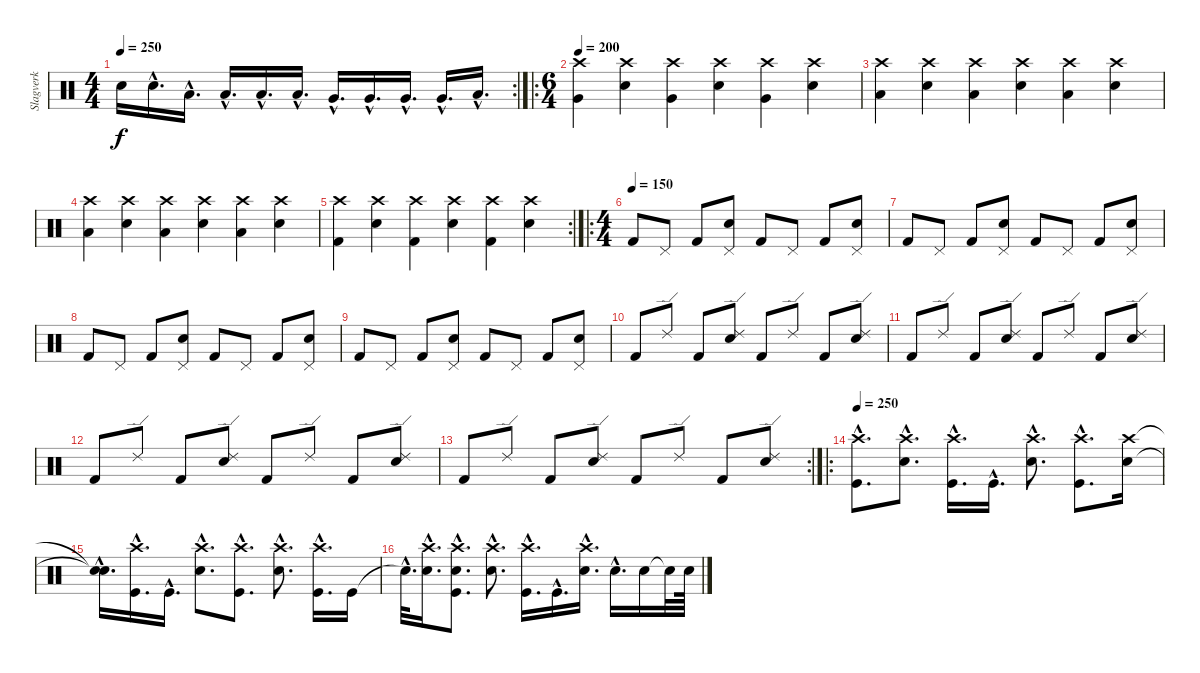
\track ("Slagverk" "Slagverk") {instrument percussion}
\staff {score}
\articulation defaults
\rc 2
\ts (4 4)
\tempo 250
\clef neutral
\ks c "Snare (hit)"{t}.16{dy f} "Electric Snare (hit)"{hac}.16{d} "Low Tom (hit)"{hac}.16{d} "Low Tom (hit)"{hac}.16{d} "Low Tom (hit)"{hac}.16{d} "Low Tom (hit)"{hac}.16{d} "Very Low Tom (hit)"{hac}.16{d} "Very Low Tom (hit)"{hac}.16{d} "Very Low Tom (hit)"{hac}.16{d} "Very Low Tom (hit)"{hac}.16{d} "Low Floor Tom (hit)"{hac}.16{d}
|
\ro
\ts (6 4)
\tempo 200
("Crash high (hit)" "Very Low Tom (hit)").4 ("Crash high (hit)" "Electric Snare (hit)").4 ("Crash high (hit)" "Very Low Tom (hit)").4 ("Crash high (hit)" "Electric Snare (hit)").4 ("Crash high (hit)" "Very Low Tom (hit)").4 ("Crash high (hit)" "Electric Snare (hit)").4 |
("Crash high (hit)" "Low Tom (hit)").4 ("Crash high (hit)" "Electric Snare (hit)").4 ("Crash high (hit)" "Low Tom (hit)").4 ("Crash high (hit)" "Electric Snare (hit)").4 ("Crash high (hit)" "Low Tom (hit)").4 ("Crash high (hit)" "Electric Snare (hit)").4 |
("Crash high (hit)" "Low Floor Tom (hit)").4 ("Crash high (hit)" "Electric Snare (hit)").4 ("Crash high (hit)" "Low Floor Tom (hit)").4 ("Crash high (hit)" "Electric Snare (hit)").4 ("Crash high (hit)" "Low Floor Tom (hit)").4 ("Crash high (hit)" "Electric Snare (hit)").4 |
\rc 2
("Crash high (hit)" "Kick (hit) 2").4 ("Crash high (hit)" "Electric Snare (hit)").4 ("Crash high (hit)" "Kick (hit) 2").4 ("Crash high (hit)" "Electric Snare (hit)").4 ("Crash high (hit)" "Kick (hit) 2").4 ("Crash high (hit)" "Electric Snare (hit)").4 |
\ro
\ts (4 4)
\tempo (150)
"Kick (hit) 2".8 "Pedal Hi-Hat (hit)".8 "Kick (hit) 2".8 ("Pedal Hi-Hat (hit)" "Electric Snare (hit)").8 "Kick (hit) 2".8 "Pedal Hi-Hat (hit)".8 "Kick (hit) 2".8 ("Pedal Hi-Hat (hit)" "Electric Snare (hit)").8 |
"Kick (hit) 2".8 "Pedal Hi-Hat (hit)".8 "Kick (hit) 2".8 ("Pedal Hi-Hat (hit)" "Electric Snare (hit)").8 "Kick (hit) 2".8 "Pedal Hi-Hat (hit)".8 "Kick (hit) 2".8 ("Pedal Hi-Hat (hit)" "Electric Snare (hit)").8 |
"Kick (hit) 2".8 "Pedal Hi-Hat (hit)".8 "Kick (hit) 2".8 ("Pedal Hi-Hat (hit)" "Electric Snare (hit)").8 "Kick (hit) 2".8 "Pedal Hi-Hat (hit)".8 "Kick (hit) 2".8 ("Pedal Hi-Hat (hit)" "Electric Snare (hit)").8 |
"Kick (hit) 2".8 "Pedal Hi-Hat (hit)".8 "Kick (hit) 2".8 ("Pedal Hi-Hat (hit)" "Electric Snare (hit)").8 "Kick (hit) 2".8 "Pedal Hi-Hat (hit)".8 "Kick (hit) 2".8 ("Pedal Hi-Hat (hit)" "Electric Snare (hit)").8 |
"Kick (hit) 2".8 "Ride (edge) 2".8 "Kick (hit) 2".8 ("Ride (edge) 2" "Electric Snare (hit)").8 "Kick (hit) 2".8 "Ride (edge) 2".8 "Kick (hit) 2".8 ("Ride (edge) 2" "Electric Snare (hit)").8 |
"Kick (hit) 2".8 "Ride (edge) 2".8 "Kick (hit) 2".8 ("Ride (edge) 2" "Electric Snare (hit)").8 "Kick (hit) 2".8 "Ride (edge) 2".8 "Kick (hit) 2".8 ("Ride (edge) 2" "Electric Snare (hit)").8 |
"Kick (hit) 2".8 "Ride (edge) 2".8 "Kick (hit) 2".8 ("Ride (edge) 2" "Electric Snare (hit)").8 "Kick (hit) 2".8 "Ride (edge) 2".8 "Kick (hit) 2".8 ("Ride (edge) 2" "Electric Snare (hit)").8 |
\rc 2 "Kick (hit) 2".8 "Ride (edge) 2".8 "Kick (hit) 2".8
("Ride (edge) 2" "Electric Snare (hit)").8 "Kick (hit) 2".8 "Ride (edge) 2".8 "Kick (hit) 2".8 ("Ride (edge) 2" "Electric Snare (hit)").8 |
\ro
\tempo 250
("Crash high (hit)"{hac} "Kick (hit)"{hac}).8{d} ("Crash high (hit)"{hac} "Snare (hit) 2"{hac}).8{d} ("Crash high (hit)"{hac} "Kick (hit)"{hac}).16{d} "Kick (hit)"{hac}.16{d} ("Crash high (hit)"{hac} "Snare (hit) 2"{hac}).8{d} ("Crash high (hit)"{hac} "Kick (hit)"{hac}).8{d} ("Crash high (hit)" "Snare (hit) 2").16 |
("Snare (hit)"{hac t} "Snare (hit)"{hac t}).16{d} ("Crash high (hit)"{hac} "Kick (hit)"{hac}).16{d} "Kick (hit)"{hac}.16{d} ("Crash high (hit)"{hac} "Snare (hit) 2"{hac}).8{d} ("Crash high (hit)"{hac} "Kick (hit)"{hac}).8{d} ("Crash high (hit)"{hac} "Snare (hit) 2"{hac}).8{d} ("Crash high (hit)"{hac} "Kick (hit)"{hac}).16{d} "Kick (hit)".16 |
"Snare (hit)"{hac t}.32{d} ("Crash high (hit)"{hac} "Snare (hit) 2"{hac}).16{d} ("Crash high (hit)"{hac} "Kick (hit)"{hac} "Snare (hit)"{hac}).8{d} ("Crash high (hit)"{hac} "Snare (hit) 2"{hac}).8{d} ("Crash high (hit)"{hac} "Kick (hit)"{hac}).16{d} "Kick (hit)"{hac}.16{d} ("Crash high (hit)"{hac} "Snare (hit) 2"{hac}).16{d} "Electric Snare (hit)"{hac}.16{d} "Electric Snare (hit)".16 "Snare (hit)"{t}.32 "Electric Snare (hit)".64
